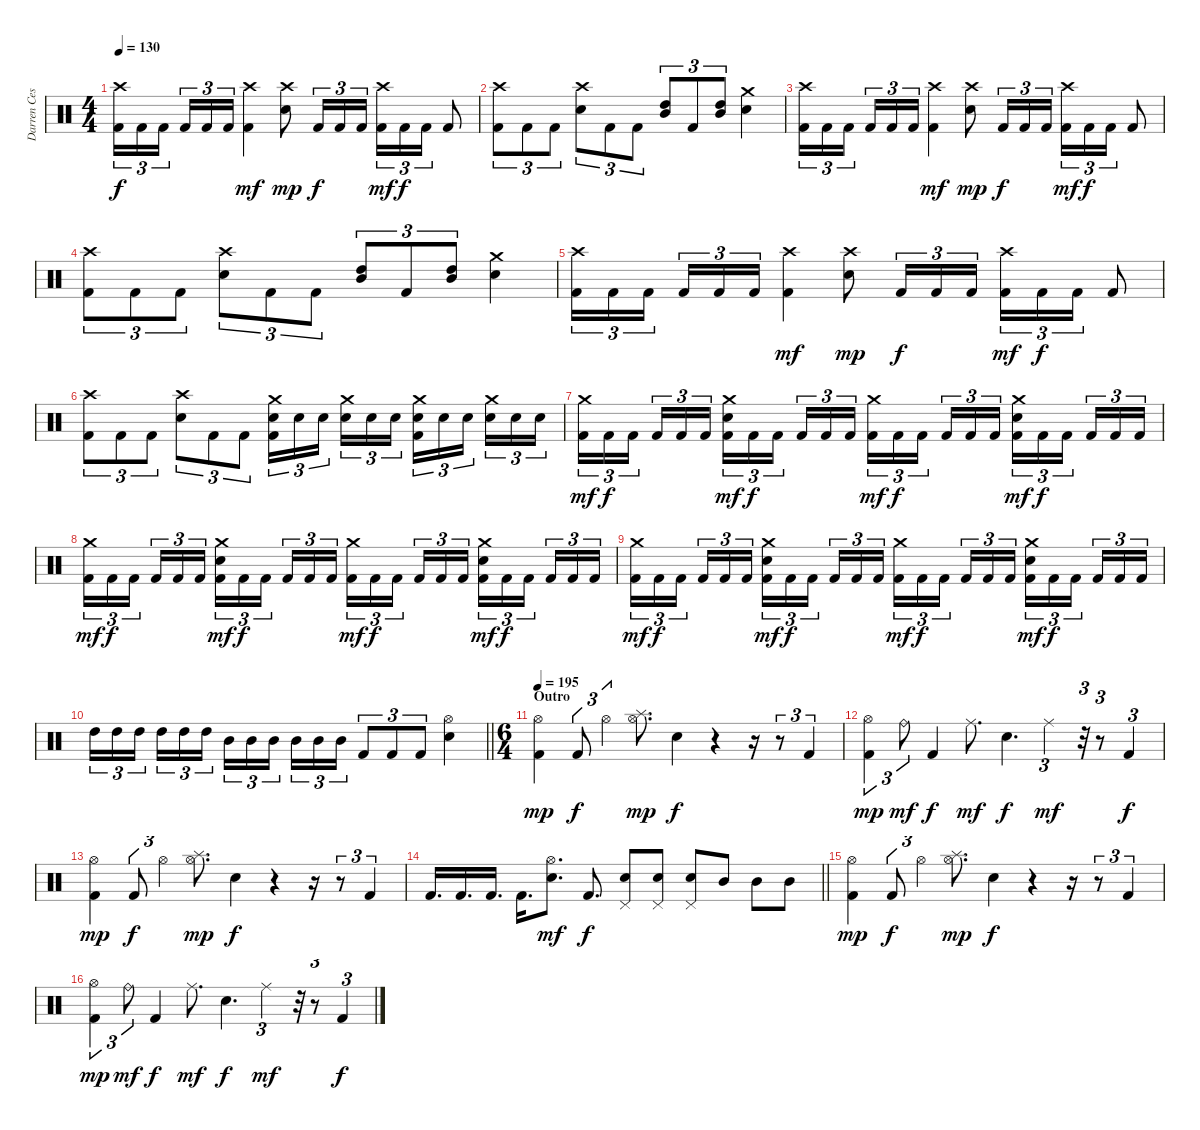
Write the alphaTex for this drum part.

\track ("Darren Cesca" "Darren Ces") {instrument percussion}
\staff {score}
\articulation defaults
\ts (4 4)
\tempo 130
\clef neutral
\ks c
("Crash high (hit)" "Kick (hit) 2").16{tu (3 2) dy f} "Kick (hit) 2".16{tu (3 2)} "Kick (hit) 2".16{tu (3 2) beam splitsecondary} "Kick (hit) 2".16{tu (3 2)} "Kick (hit) 2".16{tu (3 2)} "Kick (hit) 2".16{tu (3 2)} ("Crash high (hit)" "Kick (hit) 2").4{dy mf} ("Crash high (hit)" "Electric Snare (hit)").8{dy mp} "Kick (hit) 2".16{tu (3 2) dy f} "Kick (hit) 2".16{tu (3 2)} "Kick (hit) 2".16{tu (3 2)} ("Crash high (hit)" "Kick (hit) 2").16{tu (3 2) dy mf} "Kick (hit) 2".16{tu (3 2) dy f} "Kick (hit) 2".16{tu (3 2)} "Kick (hit) 2".8 |
("Crash high (hit)" "Kick (hit) 2").8{tu (3 2)} "Kick (hit) 2".8{tu (3 2)} "Kick (hit) 2".8{tu (3 2)} ("Crash high (hit)" "Electric Snare (hit)").8{tu (3 2)} "Kick (hit) 2".8{tu (3 2)} "Kick (hit) 2".8{tu (3 2)} ("High Tom (hit)" "Mid Tom (hit)").8{tu (3 2)} "Kick (hit) 2".8{tu (3 2)} ("High Tom (hit)" "Mid Tom (hit)").8{tu (3 2)} ("Crash medium (hit)" "Electric Snare (hit)").4 |
("Crash high (hit)" "Kick (hit) 2").16{tu (3 2)} "Kick (hit) 2".16{tu (3 2)} "Kick (hit) 2".16{tu (3 2) beam splitsecondary} "Kick (hit) 2".16{tu (3 2)} "Kick (hit) 2".16{tu (3 2)} "Kick (hit) 2".16{tu (3 2)} ("Crash high (hit)" "Kick (hit) 2").4{dy mf} ("Crash high (hit)" "Electric Snare (hit)").8{dy mp} "Kick (hit) 2".16{tu (3 2) dy f} "Kick (hit) 2".16{tu (3 2)} "Kick (hit) 2".16{tu (3 2)} ("Crash high (hit)" "Kick (hit) 2").16{tu (3 2) dy mf} "Kick (hit) 2".16{tu (3 2) dy f} "Kick (hit) 2".16{tu (3 2)} "Kick (hit) 2".8 |
("Crash high (hit)" "Kick (hit) 2").8{tu (3 2)} "Kick (hit) 2".8{tu (3 2)} "Kick (hit) 2".8{tu (3 2)} ("Crash high (hit)" "Electric Snare (hit)").8{tu (3 2)} "Kick (hit) 2".8{tu (3 2)} "Kick (hit) 2".8{tu (3 2)} ("High Tom (hit)" "Mid Tom (hit)").8{tu (3 2)} "Kick (hit) 2".8{tu (3 2)} ("High Tom (hit)" "Mid Tom (hit)").8{tu (3 2)} ("Crash medium (hit)" "Electric Snare (hit)").4 |
("Crash high (hit)" "Kick (hit) 2").16{tu (3 2)} "Kick (hit) 2".16{tu (3 2)} "Kick (hit) 2".16{tu (3 2) beam splitsecondary} "Kick (hit) 2".16{tu (3 2)} "Kick (hit) 2".16{tu (3 2)} "Kick (hit) 2".16{tu (3 2)} ("Crash high (hit)" "Kick (hit) 2").4{dy mf} ("Crash high (hit)" "Electric Snare (hit)").8{dy mp} "Kick (hit) 2".16{tu (3 2) dy f} "Kick (hit) 2".16{tu (3 2)} "Kick (hit) 2".16{tu (3 2)} ("Crash high (hit)" "Kick (hit) 2").16{tu (3 2) dy mf} "Kick (hit) 2".16{tu (3 2) dy f} "Kick (hit) 2".16{tu (3 2)} "Kick (hit) 2".8 |
("Crash high (hit)" "Kick (hit) 2").8{tu (3 2)} "Kick (hit) 2".8{tu (3 2)} "Kick (hit) 2".8{tu (3 2)} ("Crash high (hit)" "Electric Snare (hit)").8{tu (3 2)} "Kick (hit) 2".8{tu (3 2)} "Kick (hit) 2".8{tu (3 2)} ("Crash medium (hit)" "Electric Snare (hit)" "Kick (hit) 2").16{tu (3 2)} "Electric Snare (hit)".16{tu (3 2)} "Electric Snare (hit)".16{tu (3 2) beam splitsecondary} ("Crash medium (hit)" "Electric Snare (hit)").16{tu (3 2)} "Electric Snare (hit)".16{tu (3 2)} "Electric Snare (hit)".16{tu (3 2)} ("Crash medium (hit)" "Electric Snare (hit)" "Kick (hit) 2").16{tu (3 2)} "Electric Snare (hit)".16{tu (3 2)} "Electric Snare (hit)".16{tu (3 2) beam splitsecondary} ("Crash medium (hit)" "Electric Snare (hit)").16{tu (3 2)} "Electric Snare (hit)".16{tu (3 2)} "Electric Snare (hit)".16{tu (3 2)} |
("Crash medium (hit)" "Kick (hit) 2").16{tu (3 2) dy mf} "Kick (hit) 2".16{tu (3 2) dy f} "Kick (hit) 2".16{tu (3 2) beam splitsecondary} "Kick (hit) 2".16{tu (3 2)} "Kick (hit) 2".16{tu (3 2)} "Kick (hit) 2".16{tu (3 2)} ("Crash medium (hit)" "Electric Snare (hit)" "Kick (hit) 2").16{tu (3 2) dy mf} "Kick (hit) 2".16{tu (3 2) dy f} "Kick (hit) 2".16{tu (3 2) beam splitsecondary} "Kick (hit) 2".16{tu (3 2)} "Kick (hit) 2".16{tu (3 2)} "Kick (hit) 2".16{tu (3 2)} ("Crash medium (hit)" "Kick (hit) 2").16{tu (3 2) dy mf} "Kick (hit) 2".16{tu (3 2) dy f} "Kick (hit) 2".16{tu (3 2) beam splitsecondary} "Kick (hit) 2".16{tu (3 2)} "Kick (hit) 2".16{tu (3 2)} "Kick (hit) 2".16{tu (3 2)} ("Crash medium (hit)" "Electric Snare (hit)" "Kick (hit) 2").16{tu (3 2) dy mf} "Kick (hit) 2".16{tu (3 2) dy f} "Kick (hit) 2".16{tu (3 2) beam splitsecondary} "Kick (hit) 2".16{tu (3 2)} "Kick (hit) 2".16{tu (3 2)} "Kick (hit) 2".16{tu (3 2)} |
("Crash medium (hit)" "Kick (hit) 2").16{tu (3 2) dy mf} "Kick (hit) 2".16{tu (3 2) dy f} "Kick (hit) 2".16{tu (3 2) beam splitsecondary} "Kick (hit) 2".16{tu (3 2)} "Kick (hit) 2".16{tu (3 2)} "Kick (hit) 2".16{tu (3 2)} ("Crash medium (hit)" "Electric Snare (hit)" "Kick (hit) 2").16{tu (3 2) dy mf} "Kick (hit) 2".16{tu (3 2) dy f} "Kick (hit) 2".16{tu (3 2) beam splitsecondary} "Kick (hit) 2".16{tu (3 2)} "Kick (hit) 2".16{tu (3 2)} "Kick (hit) 2".16{tu (3 2)} ("Crash medium (hit)" "Kick (hit) 2").16{tu (3 2) dy mf} "Kick (hit) 2".16{tu (3 2) dy f} "Kick (hit) 2".16{tu (3 2) beam splitsecondary} "Kick (hit) 2".16{tu (3 2)} "Kick (hit) 2".16{tu (3 2)} "Kick (hit) 2".16{tu (3 2)} ("Crash medium (hit)" "Electric Snare (hit)" "Kick (hit) 2").16{tu (3 2) dy mf} "Kick (hit) 2".16{tu (3 2) dy f} "Kick (hit) 2".16{tu (3 2) beam splitsecondary} "Kick (hit) 2".16{tu (3 2)} "Kick (hit) 2".16{tu (3 2)} "Kick (hit) 2".16{tu (3 2)} |
("Crash medium (hit)" "Kick (hit) 2").16{tu (3 2) dy mf} "Kick (hit) 2".16{tu (3 2) dy f} "Kick (hit) 2".16{tu (3 2) beam splitsecondary} "Kick (hit) 2".16{tu (3 2)} "Kick (hit) 2".16{tu (3 2)} "Kick (hit) 2".16{tu (3 2)} ("Crash medium (hit)" "Electric Snare (hit)" "Kick (hit) 2").16{tu (3 2) dy mf} "Kick (hit) 2".16{tu (3 2) dy f} "Kick (hit) 2".16{tu (3 2) beam splitsecondary} "Kick (hit) 2".16{tu (3 2)} "Kick (hit) 2".16{tu (3 2)} "Kick (hit) 2".16{tu (3 2)} ("Crash medium (hit)" "Kick (hit) 2").16{tu (3 2) dy mf} "Kick (hit) 2".16{tu (3 2) dy f} "Kick (hit) 2".16{tu (3 2) beam splitsecondary} "Kick (hit) 2".16{tu (3 2)} "Kick (hit) 2".16{tu (3 2)} "Kick (hit) 2".16{tu (3 2)} ("Crash medium (hit)" "Electric Snare (hit)" "Kick (hit) 2").16{tu (3 2) dy mf} "Kick (hit) 2".16{tu (3 2) dy f} "Kick (hit) 2".16{tu (3 2) beam splitsecondary} "Kick (hit) 2".16{tu (3 2)} "Kick (hit) 2".16{tu (3 2)} "Kick (hit) 2".16{tu (3 2)} |
\barLineRight lightlight "High Tom (hit)".16{tu (3 2)} "High Tom (hit)".16{tu (3 2)} "High Tom (hit)".16{tu (3 2) beam splitsecondary} "High Tom (hit)".16{tu (3 2)} "High Tom (hit)".16{tu (3 2)} "High Tom (hit)".16{tu (3 2)} "Mid Tom (hit)".16{tu (3 2)} "Mid Tom (hit)".16{tu (3 2)} "Mid Tom (hit)".16{tu (3 2) beam splitsecondary} "Mid Tom (hit)".16{tu (3 2)} "Mid Tom (hit)".16{tu (3 2)} "Mid Tom (hit)".16{tu (3 2)} "Kick (hit) 2".8{tu (3 2)} "Kick (hit) 2".8{tu (3 2)} "Kick (hit) 2".8{tu (3 2)}
("Hi-Hat (open)" "Electric Snare (hit)").4 |
\ts (6 4)
\section ("" "Outro")
\tempo 195
("Hi-Hat (open)" "Kick (hit) 2").4{dy mp} "Kick (hit) 2".8{tu (3 2) dy f} "Hi-Hat (open)".4{tu (3 2)} ("Hi-Hat (open)" "Splash (hit)").8{d dy mp} "Electric Snare (hit)".4{dy f} r.4 r.16 r.8{tu (3 2)} "Kick (hit) 2".4{tu (3 2)} |
("Hi-Hat (open)" "Kick (hit) 2").4{tu (3 2) dy mp} "Ride (bell)".8{tu (3 2) dy mf} "Kick (hit) 2".4{dy f} "Ride (middle)".8{d dy mf} "Electric Snare (hit)".4{d dy f} "Ride (middle)".4{tu (3 2) dy mf} r.32{tu (3 2)} r.8{tu (3 2)} "Kick (hit) 2".4{tu (3 2) dy f} |
("Hi-Hat (open)" "Kick (hit) 2").4{dy mp} "Kick (hit) 2".8{tu (3 2) dy f} "Hi-Hat (open)".4{tu (3 2)} ("Hi-Hat (open)" "Splash (hit)").8{d dy mp} "Electric Snare (hit)".4{dy f} r.4 r.16 r.8{tu (3 2)} "Kick (hit) 2".4{tu (3 2)} |
\barLineRight lightlight "Kick (hit) 2".16{d} "Kick (hit) 2".16{d} "Kick (hit) 2".16{d} "Kick (hit) 2".16{d}
("Hi-Hat (open)" "Electric Snare (hit)").8{d dy mf} "Kick (hit) 2".8{d dy f} ("Pedal Hi-Hat (hit)" "Electric Snare (hit)").8 ("Pedal Hi-Hat (hit)" "Electric Snare (hit)").8 ("Pedal Hi-Hat (hit)" "Electric Snare (hit)").8 "Mid Tom (hit)".8 "Mid Tom (hit)".8 "Mid Tom (hit)".8 |
("Hi-Hat (open)" "Kick (hit) 2").4{dy mp} "Kick (hit) 2".8{tu (3 2) dy f} "Hi-Hat (open)".4{tu (3 2)} ("Hi-Hat (open)" "Splash (hit)").8{d dy mp} "Electric Snare (hit)".4{dy f} r.4 r.16 r.8{tu (3 2)} "Kick (hit) 2".4{tu (3 2)} |
("Hi-Hat (open)" "Kick (hit) 2").4{tu (3 2) dy mp} "Ride (bell)".8{tu (3 2) dy mf} "Kick (hit) 2".4{dy f} "Ride (middle)".8{d dy mf} "Electric Snare (hit)".4{d dy f} "Ride (middle)".4{tu (3 2) dy mf} r.32{tu (3 2)} r.8{tu (3 2)} "Kick (hit) 2".4{tu (3 2) dy f}
